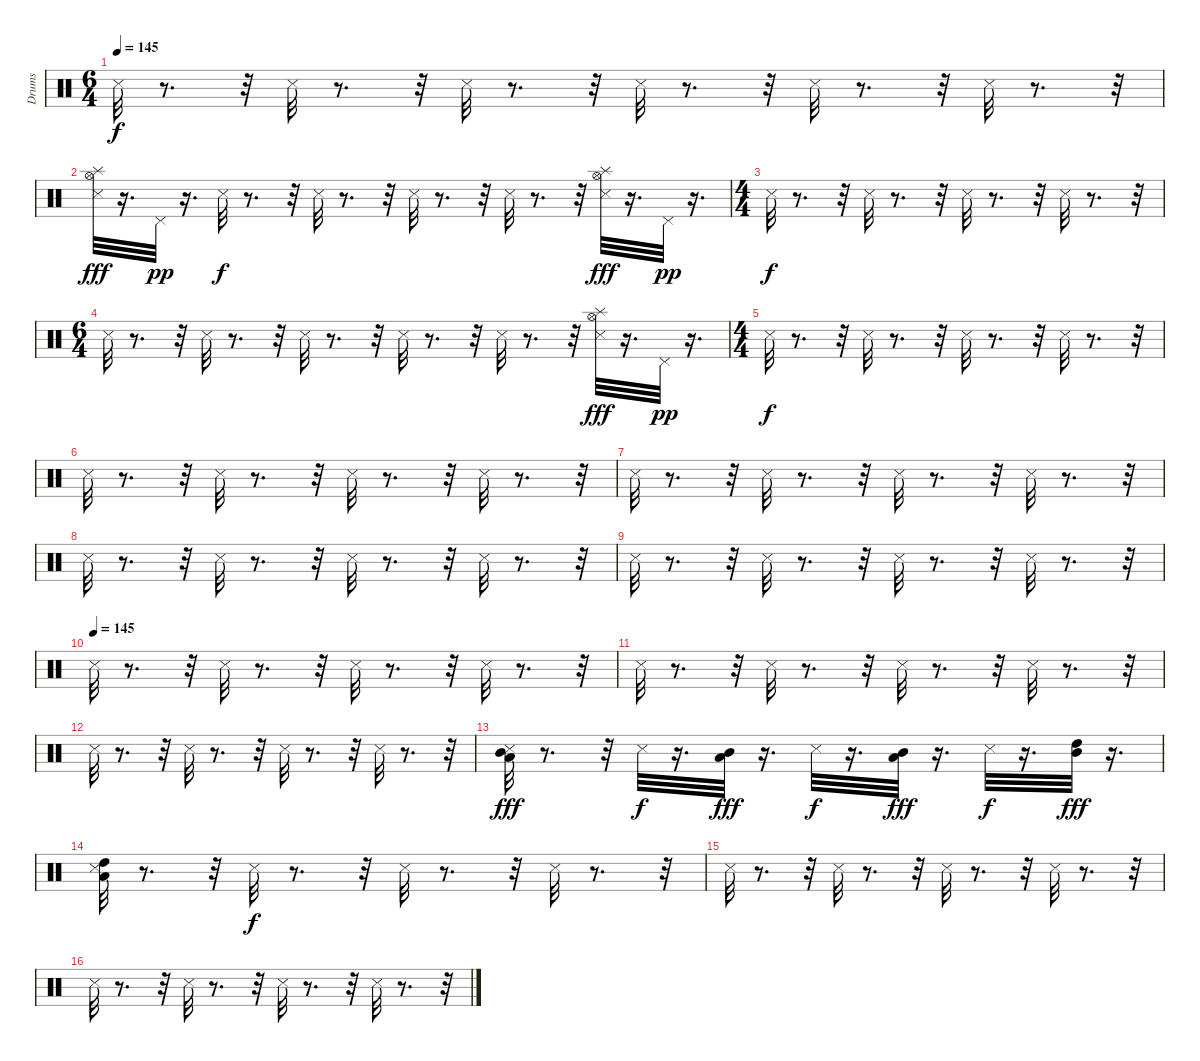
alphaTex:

\track ("Drums" "Drums") {instrument percussion}
\staff {score}
\articulation defaults
\ts (6 4)
\tempo 145
\clef neutral
\ks c "Metronome (hit)".32{dy f}
r.8{d} r.32 "Metronome (hit)".32 r.8{d} r.32 "Metronome (hit)".32 r.8{d} r.32 "Metronome (hit)".32 r.8{d} r.32 "Metronome (hit)".32 r.8{d} r.32 "Metronome (hit)".32 r.8{d} r.32 |
("Metronome (hit)" "Hi-Hat (open)" "Splash (hit)").32{dy fff} r.16{d} "Pedal Hi-Hat (hit)".32{dy pp} r.16{d} "Metronome (hit)".32{dy f} r.8{d} r.32 "Metronome (hit)".32 r.8{d} r.32 "Metronome (hit)".32 r.8{d} r.32 "Metronome (hit)".32 r.8{d} r.32 ("Metronome (hit)" "Hi-Hat (open)" "Splash (hit)").32{dy fff} r.16{d} "Pedal Hi-Hat (hit)".32{dy pp} r.16{d} |
\ts (4 4)
"Metronome (hit)".32{dy f} r.8{d} r.32 "Metronome (hit)".32 r.8{d} r.32 "Metronome (hit)".32 r.8{d} r.32 "Metronome (hit)".32 r.8{d} r.32 |
\ts (6 4)
"Metronome (hit)".32 r.8{d} r.32 "Metronome (hit)".32 r.8{d} r.32 "Metronome (hit)".32 r.8{d} r.32 "Metronome (hit)".32 r.8{d} r.32 "Metronome (hit)".32 r.8{d} r.32 ("Metronome (hit)" "Hi-Hat (open)" "Splash (hit)").32{dy fff} r.16{d} "Pedal Hi-Hat (hit)".32{dy pp} r.16{d} |
\ts (4 4)
"Metronome (hit)".32{dy f} r.8{d} r.32 "Metronome (hit)".32 r.8{d} r.32 "Metronome (hit)".32 r.8{d} r.32 "Metronome (hit)".32 r.8{d} r.32 |
"Metronome (hit)".32 r.8{d} r.32 "Metronome (hit)".32 r.8{d} r.32 "Metronome (hit)".32 r.8{d} r.32 "Metronome (hit)".32 r.8{d} r.32 |
"Metronome (hit)".32 r.8{d} r.32 "Metronome (hit)".32 r.8{d} r.32 "Metronome (hit)".32 r.8{d} r.32 "Metronome (hit)".32 r.8{d} r.32 |
"Metronome (hit)".32 r.8{d} r.32 "Metronome (hit)".32 r.8{d} r.32 "Metronome (hit)".32 r.8{d} r.32 "Metronome (hit)".32 r.8{d} r.32 |
"Metronome (hit)".32 r.8{d} r.32 "Metronome (hit)".32 r.8{d} r.32 "Metronome (hit)".32 r.8{d} r.32 "Metronome (hit)".32 r.8{d} r.32 |
\tempo (145)
"Metronome (hit)".32 r.8{d} r.32 "Metronome (hit)".32 r.8{d} r.32 "Metronome (hit)".32 r.8{d} r.32 "Metronome (hit)".32 r.8{d} r.32 |
"Metronome (hit)".32 r.8{d} r.32 "Metronome (hit)".32 r.8{d} r.32 "Metronome (hit)".32 r.8{d} r.32 "Metronome (hit)".32 r.8{d} r.32 |
"Metronome (hit)".32 r.8{d} r.32 "Metronome (hit)".32 r.8{d} r.32 "Metronome (hit)".32 r.8{d} r.32 "Metronome (hit)".32 r.8{d} r.32 |
("Low Tom (hit)" "Mid Tom (hit)" "Metronome (hit)").32{dy fff} r.8{d} r.32 "Metronome (hit)".32{dy f} r.16{d} ("Low Tom (hit)" "Mid Tom (hit)").32{dy fff} r.16{d} "Metronome (hit)".32{dy f} r.16{d} ("Low Tom (hit)" "Mid Tom (hit)").32{dy fff} r.16{d} "Metronome (hit)".32{dy f} r.16{d} ("Mid Tom (hit)" "High Tom (hit)").32{dy fff} r.16{d} |
("High Tom (hit)" "Low Tom (hit)" "Metronome (hit)").32 r.8{d} r.32 "Metronome (hit)".32{dy f} r.8{d} r.32 "Metronome (hit)".32 r.8{d} r.32 "Metronome (hit)".32 r.8{d} r.32 |
"Metronome (hit)".32 r.8{d} r.32 "Metronome (hit)".32 r.8{d} r.32 "Metronome (hit)".32 r.8{d} r.32 "Metronome (hit)".32 r.8{d} r.32 |
"Metronome (hit)".32 r.8{d} r.32 "Metronome (hit)".32 r.8{d} r.32 "Metronome (hit)".32 r.8{d} r.32 "Metronome (hit)".32 r.8{d} r.32
